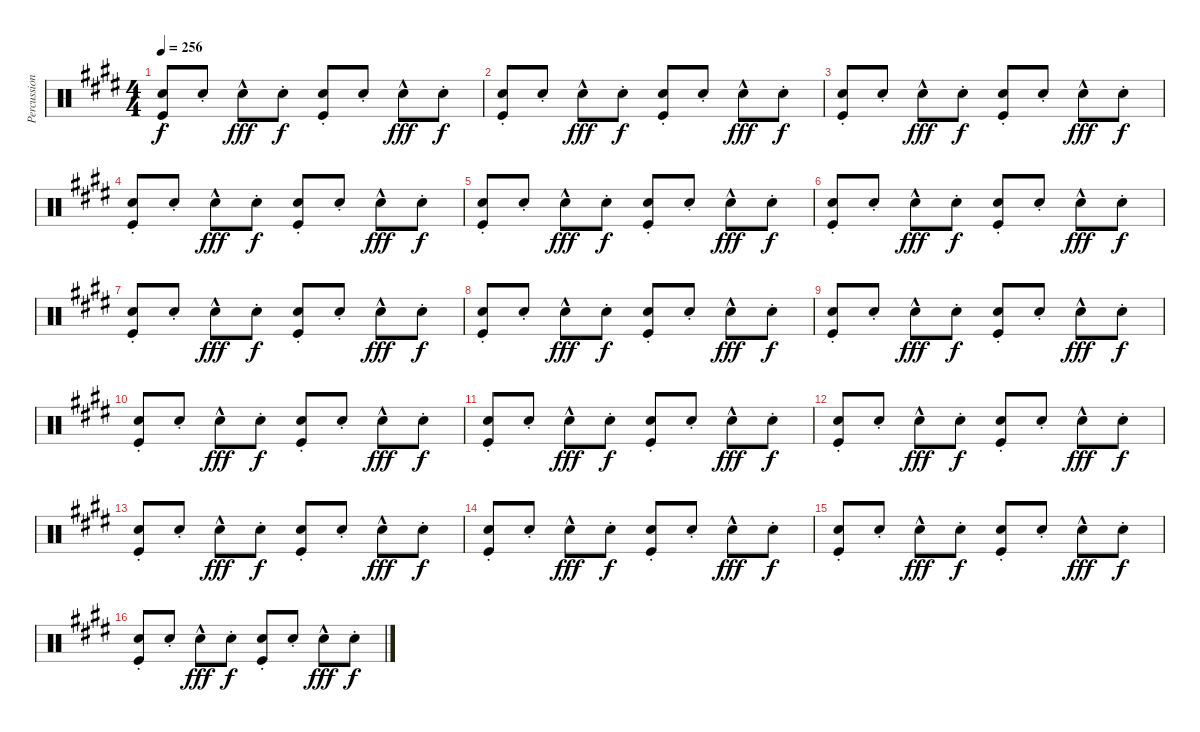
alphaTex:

\track ("Percussion" "Percussion") {instrument percussion}
\staff {score}
\articulation defaults
\ts (4 4)
\tempo 256
\clef neutral
\ks e
("Snare (hit) 2"{st} "Kick (hit)").8{dy f} "Snare (hit) 2"{st}.8 "Snare (hit) 2"{hac}.8{dy fff} "Snare (hit) 2"{st}.8{dy f} ("Snare (hit) 2"{st} "Kick (hit)").8 "Snare (hit) 2"{st}.8 "Snare (hit) 2"{hac}.8{dy fff} "Snare (hit) 2"{st}.8{dy f} |
("Snare (hit) 2"{st} "Kick (hit)").8 "Snare (hit) 2"{st}.8 "Snare (hit) 2"{hac}.8{dy fff} "Snare (hit) 2"{st}.8{dy f} ("Snare (hit) 2"{st} "Kick (hit)").8 "Snare (hit) 2"{st}.8 "Snare (hit) 2"{hac}.8{dy fff} "Snare (hit) 2"{st}.8{dy f} |
("Snare (hit) 2"{st} "Kick (hit)").8 "Snare (hit) 2"{st}.8 "Snare (hit) 2"{hac}.8{dy fff} "Snare (hit) 2"{st}.8{dy f} ("Snare (hit) 2"{st} "Kick (hit)").8 "Snare (hit) 2"{st}.8 "Snare (hit) 2"{hac}.8{dy fff} "Snare (hit) 2"{st}.8{dy f} |
("Snare (hit) 2"{st} "Kick (hit)").8 "Snare (hit) 2"{st}.8 "Snare (hit) 2"{hac}.8{dy fff} "Snare (hit) 2"{st}.8{dy f} ("Snare (hit) 2"{st} "Kick (hit)").8 "Snare (hit) 2"{st}.8 "Snare (hit) 2"{hac}.8{dy fff} "Snare (hit) 2"{st}.8{dy f} |
("Snare (hit) 2"{st} "Kick (hit)").8 "Snare (hit) 2"{st}.8 "Snare (hit) 2"{hac}.8{dy fff} "Snare (hit) 2"{st}.8{dy f} ("Snare (hit) 2"{st} "Kick (hit)").8 "Snare (hit) 2"{st}.8 "Snare (hit) 2"{hac}.8{dy fff} "Snare (hit) 2"{st}.8{dy f} |
("Snare (hit) 2"{st} "Kick (hit)").8 "Snare (hit) 2"{st}.8 "Snare (hit) 2"{hac}.8{dy fff} "Snare (hit) 2"{st}.8{dy f} ("Snare (hit) 2"{st} "Kick (hit)").8 "Snare (hit) 2"{st}.8 "Snare (hit) 2"{hac}.8{dy fff} "Snare (hit) 2"{st}.8{dy f} |
("Snare (hit) 2"{st} "Kick (hit)").8 "Snare (hit) 2"{st}.8 "Snare (hit) 2"{hac}.8{dy fff} "Snare (hit) 2"{st}.8{dy f} ("Snare (hit) 2"{st} "Kick (hit)").8 "Snare (hit) 2"{st}.8 "Snare (hit) 2"{hac}.8{dy fff} "Snare (hit) 2"{st}.8{dy f} |
("Snare (hit) 2"{st} "Kick (hit)").8 "Snare (hit) 2"{st}.8 "Snare (hit) 2"{hac}.8{dy fff} "Snare (hit) 2"{st}.8{dy f} ("Snare (hit) 2"{st} "Kick (hit)").8 "Snare (hit) 2"{st}.8 "Snare (hit) 2"{hac}.8{dy fff} "Snare (hit) 2"{st}.8{dy f} |
("Snare (hit) 2"{st} "Kick (hit)").8 "Snare (hit) 2"{st}.8 "Snare (hit) 2"{hac}.8{dy fff} "Snare (hit) 2"{st}.8{dy f} ("Snare (hit) 2"{st} "Kick (hit)").8 "Snare (hit) 2"{st}.8 "Snare (hit) 2"{hac}.8{dy fff} "Snare (hit) 2"{st}.8{dy f} |
("Snare (hit) 2"{st} "Kick (hit)").8 "Snare (hit) 2"{st}.8 "Snare (hit) 2"{hac}.8{dy fff} "Snare (hit) 2"{st}.8{dy f} ("Snare (hit) 2"{st} "Kick (hit)").8 "Snare (hit) 2"{st}.8 "Snare (hit) 2"{hac}.8{dy fff} "Snare (hit) 2"{st}.8{dy f} |
("Snare (hit) 2"{st} "Kick (hit)").8 "Snare (hit) 2"{st}.8 "Snare (hit) 2"{hac}.8{dy fff} "Snare (hit) 2"{st}.8{dy f} ("Snare (hit) 2"{st} "Kick (hit)").8 "Snare (hit) 2"{st}.8 "Snare (hit) 2"{hac}.8{dy fff} "Snare (hit) 2"{st}.8{dy f} |
("Snare (hit) 2"{st} "Kick (hit)").8 "Snare (hit) 2"{st}.8 "Snare (hit) 2"{hac}.8{dy fff} "Snare (hit) 2"{st}.8{dy f} ("Snare (hit) 2"{st} "Kick (hit)").8 "Snare (hit) 2"{st}.8 "Snare (hit) 2"{hac}.8{dy fff} "Snare (hit) 2"{st}.8{dy f} |
("Snare (hit) 2"{st} "Kick (hit)").8 "Snare (hit) 2"{st}.8 "Snare (hit) 2"{hac}.8{dy fff} "Snare (hit) 2"{st}.8{dy f} ("Snare (hit) 2"{st} "Kick (hit)").8 "Snare (hit) 2"{st}.8 "Snare (hit) 2"{hac}.8{dy fff} "Snare (hit) 2"{st}.8{dy f} |
("Snare (hit) 2"{st} "Kick (hit)").8 "Snare (hit) 2"{st}.8 "Snare (hit) 2"{hac}.8{dy fff} "Snare (hit) 2"{st}.8{dy f} ("Snare (hit) 2"{st} "Kick (hit)").8 "Snare (hit) 2"{st}.8 "Snare (hit) 2"{hac}.8{dy fff} "Snare (hit) 2"{st}.8{dy f} |
("Snare (hit) 2"{st} "Kick (hit)").8 "Snare (hit) 2"{st}.8 "Snare (hit) 2"{hac}.8{dy fff} "Snare (hit) 2"{st}.8{dy f} ("Snare (hit) 2"{st} "Kick (hit)").8 "Snare (hit) 2"{st}.8 "Snare (hit) 2"{hac}.8{dy fff} "Snare (hit) 2"{st}.8{dy f} |
("Snare (hit) 2"{st} "Kick (hit)").8 "Snare (hit) 2"{st}.8 "Snare (hit) 2"{hac}.8{dy fff} "Snare (hit) 2"{st}.8{dy f} ("Snare (hit) 2"{st} "Kick (hit)").8 "Snare (hit) 2"{st}.8 "Snare (hit) 2"{hac}.8{dy fff} "Snare (hit) 2"{st}.8{dy f}
